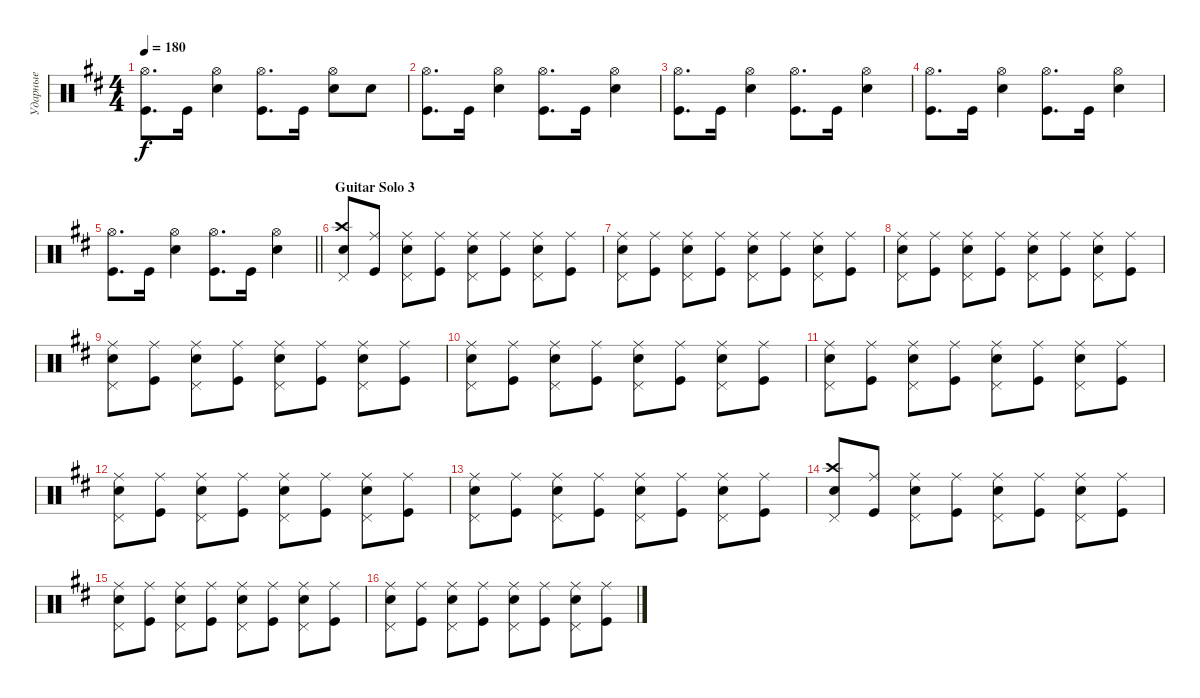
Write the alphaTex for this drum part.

\track ("Ударные" "Ударные") {instrument percussion}
\staff {score}
\articulation defaults
\ts (4 4)
\tempo 180
\clef neutral
\ks bminor
("Hi-Hat (open)" "Kick (hit)").8{d dy f} "Kick (hit)".16 ("Hi-Hat (open)" "Snare (hit) 2").4 ("Kick (hit)" "Hi-Hat (open)").8{d} "Kick (hit)".16 ("Snare (hit) 2" "Hi-Hat (open)").8 "Snare (hit) 2".8 |
("Hi-Hat (open)" "Kick (hit)").8{d} "Kick (hit)".16 ("Hi-Hat (open)" "Snare (hit) 2").4 ("Kick (hit)" "Hi-Hat (open)").8{d} "Kick (hit)".16 ("Snare (hit) 2" "Hi-Hat (open)").4 |
("Hi-Hat (open)" "Kick (hit)").8{d} "Kick (hit)".16 ("Hi-Hat (open)" "Snare (hit) 2").4 ("Kick (hit)" "Hi-Hat (open)").8{d} "Kick (hit)".16 ("Snare (hit) 2" "Hi-Hat (open)").4 |
("Hi-Hat (open)" "Kick (hit)").8{d} "Kick (hit)".16 ("Hi-Hat (open)" "Snare (hit) 2").4 ("Kick (hit)" "Hi-Hat (open)").8{d} "Kick (hit)".16 ("Snare (hit) 2" "Hi-Hat (open)").4 |
\barLineRight lightlight
("Hi-Hat (open)" "Kick (hit)").8{d} "Kick (hit)".16 ("Hi-Hat (open)" "Snare (hit) 2").4 ("Kick (hit)" "Hi-Hat (open)").8{d} "Kick (hit)".16 ("Snare (hit) 2" "Hi-Hat (open)").4 |
\section ("" "Guitar Solo 3")
("Crash high (hit)" "Snare (hit) 2" "Pedal Hi-Hat (hit)").8 ("Kick (hit)" "Ride (middle)").8 ("Pedal Hi-Hat (hit)" "Snare (hit) 2" "Ride (middle)").8 ("Kick (hit)" "Ride (middle)").8 ("Pedal Hi-Hat (hit)" "Snare (hit) 2" "Ride (middle)").8 ("Kick (hit)" "Ride (middle)").8 ("Pedal Hi-Hat (hit)" "Snare (hit) 2" "Ride (middle)").8 ("Kick (hit)" "Ride (middle)").8 |
("Ride (middle)" "Snare (hit) 2" "Pedal Hi-Hat (hit)").8 ("Kick (hit)" "Ride (middle)").8 ("Pedal Hi-Hat (hit)" "Snare (hit) 2" "Ride (middle)").8 ("Kick (hit)" "Ride (middle)").8 ("Pedal Hi-Hat (hit)" "Snare (hit) 2" "Ride (middle)").8 ("Kick (hit)" "Ride (middle)").8 ("Pedal Hi-Hat (hit)" "Snare (hit) 2" "Ride (middle)").8 ("Kick (hit)" "Ride (middle)").8 |
("Ride (middle)" "Snare (hit) 2" "Pedal Hi-Hat (hit)").8 ("Kick (hit)" "Ride (middle)").8 ("Pedal Hi-Hat (hit)" "Snare (hit) 2" "Ride (middle)").8 ("Kick (hit)" "Ride (middle)").8 ("Pedal Hi-Hat (hit)" "Snare (hit) 2" "Ride (middle)").8 ("Kick (hit)" "Ride (middle)").8 ("Pedal Hi-Hat (hit)" "Snare (hit) 2" "Ride (middle)").8 ("Kick (hit)" "Ride (middle)").8 |
("Ride (middle)" "Snare (hit) 2" "Pedal Hi-Hat (hit)").8 ("Kick (hit)" "Ride (middle)").8 ("Pedal Hi-Hat (hit)" "Snare (hit) 2" "Ride (middle)").8 ("Kick (hit)" "Ride (middle)").8 ("Pedal Hi-Hat (hit)" "Snare (hit) 2" "Ride (middle)").8 ("Kick (hit)" "Ride (middle)").8 ("Pedal Hi-Hat (hit)" "Snare (hit) 2" "Ride (middle)").8 ("Kick (hit)" "Ride (middle)").8 |
("Ride (middle)" "Snare (hit) 2" "Pedal Hi-Hat (hit)").8 ("Kick (hit)" "Ride (middle)").8 ("Pedal Hi-Hat (hit)" "Snare (hit) 2" "Ride (middle)").8 ("Kick (hit)" "Ride (middle)").8 ("Pedal Hi-Hat (hit)" "Snare (hit) 2" "Ride (middle)").8 ("Kick (hit)" "Ride (middle)").8 ("Pedal Hi-Hat (hit)" "Snare (hit) 2" "Ride (middle)").8 ("Kick (hit)" "Ride (middle)").8 |
("Ride (middle)" "Snare (hit) 2" "Pedal Hi-Hat (hit)").8 ("Kick (hit)" "Ride (middle)").8 ("Pedal Hi-Hat (hit)" "Snare (hit) 2" "Ride (middle)").8 ("Kick (hit)" "Ride (middle)").8 ("Pedal Hi-Hat (hit)" "Snare (hit) 2" "Ride (middle)").8 ("Kick (hit)" "Ride (middle)").8 ("Pedal Hi-Hat (hit)" "Snare (hit) 2" "Ride (middle)").8 ("Kick (hit)" "Ride (middle)").8 |
("Ride (middle)" "Snare (hit) 2" "Pedal Hi-Hat (hit)").8 ("Kick (hit)" "Ride (middle)").8 ("Pedal Hi-Hat (hit)" "Snare (hit) 2" "Ride (middle)").8 ("Kick (hit)" "Ride (middle)").8 ("Pedal Hi-Hat (hit)" "Snare (hit) 2" "Ride (middle)").8 ("Kick (hit)" "Ride (middle)").8 ("Pedal Hi-Hat (hit)" "Snare (hit) 2" "Ride (middle)").8 ("Kick (hit)" "Ride (middle)").8 |
("Ride (middle)" "Snare (hit) 2" "Pedal Hi-Hat (hit)").8 ("Kick (hit)" "Ride (middle)").8 ("Pedal Hi-Hat (hit)" "Snare (hit) 2" "Ride (middle)").8 ("Kick (hit)" "Ride (middle)").8 ("Pedal Hi-Hat (hit)" "Snare (hit) 2" "Ride (middle)").8 ("Kick (hit)" "Ride (middle)").8 ("Pedal Hi-Hat (hit)" "Snare (hit) 2" "Ride (middle)").8 ("Kick (hit)" "Ride (middle)").8 |
("Crash high (hit)" "Snare (hit) 2" "Pedal Hi-Hat (hit)").8 ("Kick (hit)" "Ride (middle)").8 ("Pedal Hi-Hat (hit)" "Snare (hit) 2" "Ride (middle)").8 ("Kick (hit)" "Ride (middle)").8 ("Pedal Hi-Hat (hit)" "Snare (hit) 2" "Ride (middle)").8 ("Kick (hit)" "Ride (middle)").8 ("Pedal Hi-Hat (hit)" "Snare (hit) 2" "Ride (middle)").8 ("Kick (hit)" "Ride (middle)").8 |
("Ride (middle)" "Snare (hit) 2" "Pedal Hi-Hat (hit)").8 ("Kick (hit)" "Ride (middle)").8 ("Pedal Hi-Hat (hit)" "Snare (hit) 2" "Ride (middle)").8 ("Kick (hit)" "Ride (middle)").8 ("Pedal Hi-Hat (hit)" "Snare (hit) 2" "Ride (middle)").8 ("Kick (hit)" "Ride (middle)").8 ("Pedal Hi-Hat (hit)" "Snare (hit) 2" "Ride (middle)").8 ("Kick (hit)" "Ride (middle)").8 |
("Ride (middle)" "Snare (hit) 2" "Pedal Hi-Hat (hit)").8 ("Kick (hit)" "Ride (middle)").8 ("Pedal Hi-Hat (hit)" "Snare (hit) 2" "Ride (middle)").8 ("Kick (hit)" "Ride (middle)").8 ("Pedal Hi-Hat (hit)" "Snare (hit) 2" "Ride (middle)").8 ("Kick (hit)" "Ride (middle)").8 ("Pedal Hi-Hat (hit)" "Snare (hit) 2" "Ride (middle)").8 ("Kick (hit)" "Ride (middle)").8
